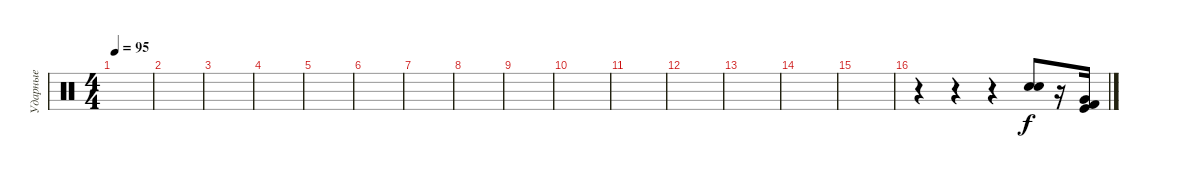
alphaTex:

\track ("Ударные" "Ударные") {instrument percussion}
\staff {score}
\articulation defaults
\ts (4 4)
\tempo 95
\clef neutral
\ks c
|
|
|
|
|
|
|
|
|
|
|
|
|
|
|
r.4 r.4 r.4 ("Electric Snare (hit)" "Snare (hit) 2").8 r.16 ("Very Low Tom (hit)" "Kick (hit)" "Kick (hit) 2").16
